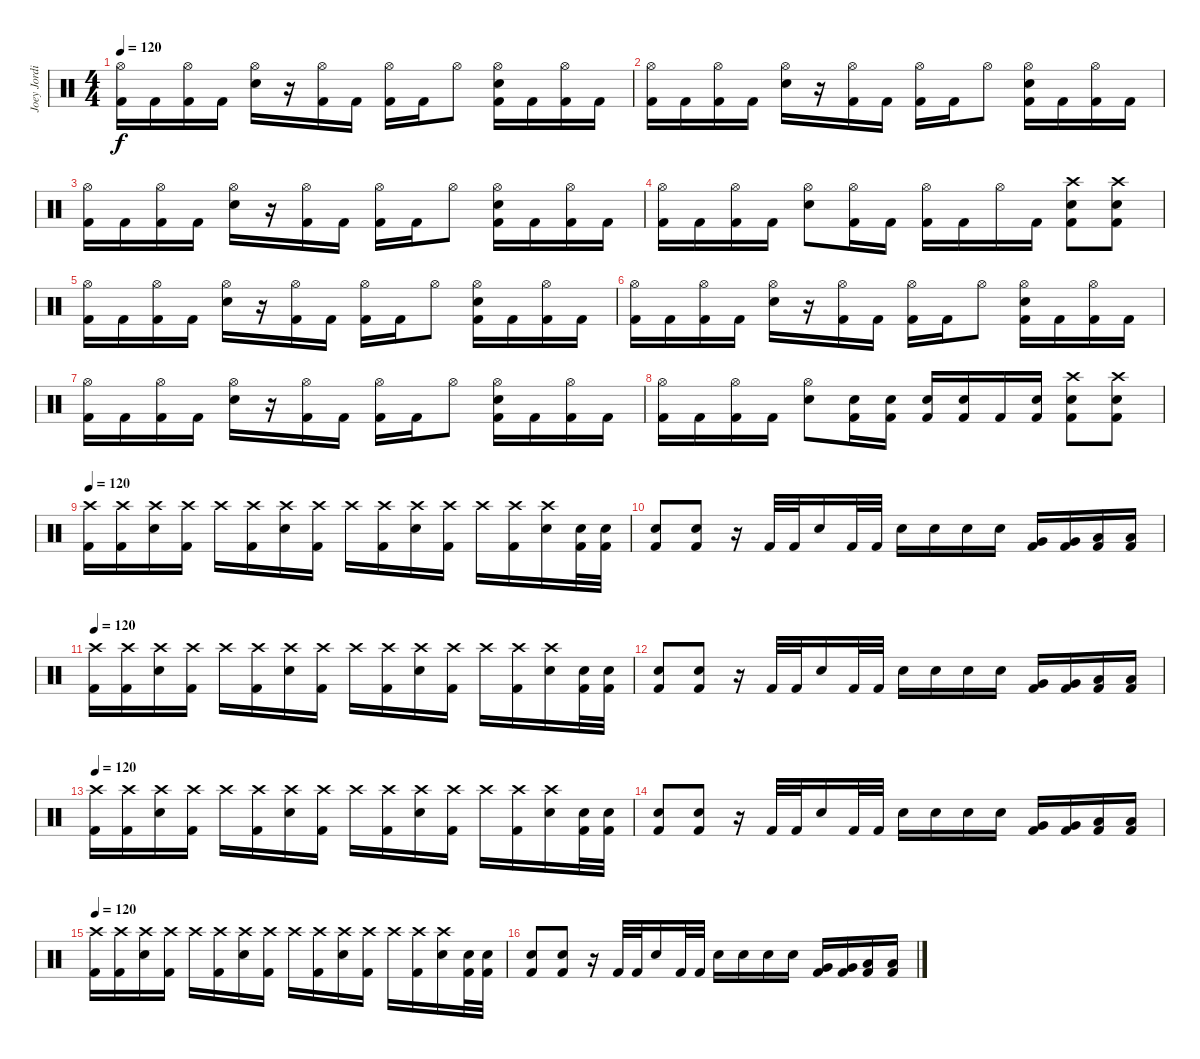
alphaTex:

\track ("Joey Jordison   #1" "Joey Jordi") {instrument percussion}
\staff {score}
\articulation defaults
\ts (4 4)
\tempo 120
\clef neutral
\ks c
("Hi-Hat (open)" "Kick (hit) 2").16{dy f} "Kick (hit) 2".16 ("Hi-Hat (open)" "Kick (hit) 2").16 "Kick (hit) 2".16 ("Hi-Hat (open)" "Electric Snare (hit)").16 r.16 ("Hi-Hat (open)" "Kick (hit) 2").16 "Kick (hit) 2".16 ("Hi-Hat (open)" "Kick (hit) 2").16 "Kick (hit) 2".16 "Hi-Hat (open)".8 ("Hi-Hat (open)" "Electric Snare (hit)" "Kick (hit) 2").16 "Kick (hit) 2".16 ("Hi-Hat (open)" "Kick (hit) 2").16 "Kick (hit) 2".16 |
("Hi-Hat (open)" "Kick (hit) 2").16 "Kick (hit) 2".16 ("Hi-Hat (open)" "Kick (hit) 2").16 "Kick (hit) 2".16 ("Hi-Hat (open)" "Electric Snare (hit)").16 r.16 ("Hi-Hat (open)" "Kick (hit) 2").16 "Kick (hit) 2".16 ("Hi-Hat (open)" "Kick (hit) 2").16 "Kick (hit) 2".16 "Hi-Hat (open)".8 ("Hi-Hat (open)" "Electric Snare (hit)" "Kick (hit) 2").16 "Kick (hit) 2".16 ("Hi-Hat (open)" "Kick (hit) 2").16 "Kick (hit) 2".16 |
("Hi-Hat (open)" "Kick (hit) 2").16 "Kick (hit) 2".16 ("Hi-Hat (open)" "Kick (hit) 2").16 "Kick (hit) 2".16 ("Hi-Hat (open)" "Electric Snare (hit)").16 r.16 ("Hi-Hat (open)" "Kick (hit) 2").16 "Kick (hit) 2".16 ("Hi-Hat (open)" "Kick (hit) 2").16 "Kick (hit) 2".16 "Hi-Hat (open)".8 ("Hi-Hat (open)" "Electric Snare (hit)" "Kick (hit) 2").16 "Kick (hit) 2".16 ("Hi-Hat (open)" "Kick (hit) 2").16 "Kick (hit) 2".16 |
("Hi-Hat (open)" "Kick (hit) 2").16 "Kick (hit) 2".16 ("Hi-Hat (open)" "Kick (hit) 2").16 "Kick (hit) 2".16 ("Hi-Hat (open)" "Electric Snare (hit)").8 ("Hi-Hat (open)" "Kick (hit) 2").16 "Kick (hit) 2".16 ("Hi-Hat (open)" "Kick (hit) 2").16 "Kick (hit) 2".16 "Hi-Hat (open)".16 "Kick (hit) 2".16 ("Electric Snare (hit)" "Crash high (hit)" "Kick (hit) 2").8 ("Electric Snare (hit)" "Crash high (hit)" "Kick (hit) 2").8 |
("Hi-Hat (open)" "Kick (hit) 2").16 "Kick (hit) 2".16 ("Hi-Hat (open)" "Kick (hit) 2").16 "Kick (hit) 2".16 ("Hi-Hat (open)" "Electric Snare (hit)").16 r.16 ("Hi-Hat (open)" "Kick (hit) 2").16 "Kick (hit) 2".16 ("Hi-Hat (open)" "Kick (hit) 2").16 "Kick (hit) 2".16 "Hi-Hat (open)".8 ("Hi-Hat (open)" "Electric Snare (hit)" "Kick (hit) 2").16 "Kick (hit) 2".16 ("Hi-Hat (open)" "Kick (hit) 2").16 "Kick (hit) 2".16 |
("Hi-Hat (open)" "Kick (hit) 2").16 "Kick (hit) 2".16 ("Hi-Hat (open)" "Kick (hit) 2").16 "Kick (hit) 2".16 ("Hi-Hat (open)" "Electric Snare (hit)").16 r.16 ("Hi-Hat (open)" "Kick (hit) 2").16 "Kick (hit) 2".16 ("Hi-Hat (open)" "Kick (hit) 2").16 "Kick (hit) 2".16 "Hi-Hat (open)".8 ("Hi-Hat (open)" "Electric Snare (hit)" "Kick (hit) 2").16 "Kick (hit) 2".16 ("Hi-Hat (open)" "Kick (hit) 2").16 "Kick (hit) 2".16 |
("Hi-Hat (open)" "Kick (hit) 2").16 "Kick (hit) 2".16 ("Hi-Hat (open)" "Kick (hit) 2").16 "Kick (hit) 2".16 ("Hi-Hat (open)" "Electric Snare (hit)").16 r.16 ("Hi-Hat (open)" "Kick (hit) 2").16 "Kick (hit) 2".16 ("Hi-Hat (open)" "Kick (hit) 2").16 "Kick (hit) 2".16 "Hi-Hat (open)".8 ("Hi-Hat (open)" "Electric Snare (hit)" "Kick (hit) 2").16 "Kick (hit) 2".16 ("Hi-Hat (open)" "Kick (hit) 2").16 "Kick (hit) 2".16 |
("Hi-Hat (open)" "Kick (hit) 2").16 "Kick (hit) 2".16 ("Hi-Hat (open)" "Kick (hit) 2").16 "Kick (hit) 2".16 ("Hi-Hat (open)" "Electric Snare (hit)").8 ("Electric Snare (hit)" "Kick (hit) 2").16 ("Electric Snare (hit)" "Kick (hit) 2").16 ("Electric Snare (hit)" "Kick (hit) 2").16 ("Electric Snare (hit)" "Kick (hit) 2").16 "Kick (hit) 2".16 ("Electric Snare (hit)" "Kick (hit) 2").16 ("Electric Snare (hit)" "Crash high (hit)" "Kick (hit) 2").8 ("Electric Snare (hit)" "Crash high (hit)" "Kick (hit) 2").8 |
\tempo 120
("Crash high (hit)" "Kick (hit) 2").16 ("Crash high (hit)" "Kick (hit) 2").16 ("Crash high (hit)" "Electric Snare (hit)").16 ("Crash high (hit)" "Kick (hit) 2").16 "Crash high (hit)".16 ("Crash high (hit)" "Kick (hit) 2").16 ("Crash high (hit)" "Electric Snare (hit)").16 ("Crash high (hit)" "Kick (hit) 2").16 "Crash high (hit)".16 ("Crash high (hit)" "Kick (hit) 2").16 ("Crash high (hit)" "Electric Snare (hit)").16 ("Crash high (hit)" "Kick (hit) 2").16 "Crash high (hit)".16 ("Crash high (hit)" "Kick (hit) 2").16 ("Crash high (hit)" "Electric Snare (hit)").16 ("Electric Snare (hit)" "Kick (hit) 2").32 ("Electric Snare (hit)" "Kick (hit) 2").32 |
("Electric Snare (hit)" "Kick (hit) 2").8 ("Electric Snare (hit)" "Kick (hit) 2").8 r.16 "Kick (hit) 2".32 "Kick (hit) 2".32 "Electric Snare (hit)".16 "Kick (hit) 2".32 "Kick (hit) 2".32 "Electric Snare (hit)".16 "Electric Snare (hit)".16 "Snare (hit) 2".16 "Snare (hit) 2".16 ("Very Low Tom (hit)" "Kick (hit) 2").16 ("Very Low Tom (hit)" "Kick (hit) 2").16 ("Low Floor Tom (hit)" "Kick (hit) 2").16 ("Low Floor Tom (hit)" "Kick (hit) 2").16 |
\tempo 120
("Crash high (hit)" "Kick (hit) 2").16 ("Crash high (hit)" "Kick (hit) 2").16 ("Crash high (hit)" "Electric Snare (hit)").16 ("Crash high (hit)" "Kick (hit) 2").16 "Crash high (hit)".16 ("Crash high (hit)" "Kick (hit) 2").16 ("Crash high (hit)" "Electric Snare (hit)").16 ("Crash high (hit)" "Kick (hit) 2").16 "Crash high (hit)".16 ("Crash high (hit)" "Kick (hit) 2").16 ("Crash high (hit)" "Electric Snare (hit)").16 ("Crash high (hit)" "Kick (hit) 2").16 "Crash high (hit)".16 ("Crash high (hit)" "Kick (hit) 2").16 ("Crash high (hit)" "Electric Snare (hit)").16 ("Electric Snare (hit)" "Kick (hit) 2").32 ("Electric Snare (hit)" "Kick (hit) 2").32 |
("Electric Snare (hit)" "Kick (hit) 2").8 ("Electric Snare (hit)" "Kick (hit) 2").8 r.16 "Kick (hit) 2".32 "Kick (hit) 2".32 "Electric Snare (hit)".16 "Kick (hit) 2".32 "Kick (hit) 2".32 "Electric Snare (hit)".16 "Electric Snare (hit)".16 "Snare (hit) 2".16 "Snare (hit) 2".16 ("Very Low Tom (hit)" "Kick (hit) 2").16 ("Very Low Tom (hit)" "Kick (hit) 2").16 ("Low Floor Tom (hit)" "Kick (hit) 2").16 ("Low Floor Tom (hit)" "Kick (hit) 2").16 |
\tempo 120
("Crash high (hit)" "Kick (hit) 2").16 ("Crash high (hit)" "Kick (hit) 2").16 ("Crash high (hit)" "Electric Snare (hit)").16 ("Crash high (hit)" "Kick (hit) 2").16 "Crash high (hit)".16 ("Crash high (hit)" "Kick (hit) 2").16 ("Crash high (hit)" "Electric Snare (hit)").16 ("Crash high (hit)" "Kick (hit) 2").16 "Crash high (hit)".16 ("Crash high (hit)" "Kick (hit) 2").16 ("Crash high (hit)" "Electric Snare (hit)").16 ("Crash high (hit)" "Kick (hit) 2").16 "Crash high (hit)".16 ("Crash high (hit)" "Kick (hit) 2").16 ("Crash high (hit)" "Electric Snare (hit)").16 ("Electric Snare (hit)" "Kick (hit) 2").32 ("Electric Snare (hit)" "Kick (hit) 2").32 |
("Electric Snare (hit)" "Kick (hit) 2").8 ("Electric Snare (hit)" "Kick (hit) 2").8 r.16 "Kick (hit) 2".32 "Kick (hit) 2".32 "Electric Snare (hit)".16 "Kick (hit) 2".32 "Kick (hit) 2".32 "Electric Snare (hit)".16 "Electric Snare (hit)".16 "Snare (hit) 2".16 "Snare (hit) 2".16 ("Very Low Tom (hit)" "Kick (hit) 2").16 ("Very Low Tom (hit)" "Kick (hit) 2").16 ("Low Floor Tom (hit)" "Kick (hit) 2").16 ("Low Floor Tom (hit)" "Kick (hit) 2").16 |
\tempo 120
("Crash high (hit)" "Kick (hit) 2").16 ("Crash high (hit)" "Kick (hit) 2").16 ("Crash high (hit)" "Electric Snare (hit)").16 ("Crash high (hit)" "Kick (hit) 2").16 "Crash high (hit)".16 ("Crash high (hit)" "Kick (hit) 2").16 ("Crash high (hit)" "Electric Snare (hit)").16 ("Crash high (hit)" "Kick (hit) 2").16 "Crash high (hit)".16 ("Crash high (hit)" "Kick (hit) 2").16 ("Crash high (hit)" "Electric Snare (hit)").16 ("Crash high (hit)" "Kick (hit) 2").16 "Crash high (hit)".16 ("Crash high (hit)" "Kick (hit) 2").16 ("Crash high (hit)" "Electric Snare (hit)").16 ("Electric Snare (hit)" "Kick (hit) 2").32 ("Electric Snare (hit)" "Kick (hit) 2").32 |
("Electric Snare (hit)" "Kick (hit) 2").8 ("Electric Snare (hit)" "Kick (hit) 2").8 r.16 "Kick (hit) 2".32 "Kick (hit) 2".32 "Electric Snare (hit)".16 "Kick (hit) 2".32 "Kick (hit) 2".32 "Electric Snare (hit)".16 "Electric Snare (hit)".16 "Snare (hit) 2".16 "Snare (hit) 2".16 ("Very Low Tom (hit)" "Kick (hit) 2").16 ("Very Low Tom (hit)" "Kick (hit) 2").16 ("Low Floor Tom (hit)" "Kick (hit) 2").16 ("Low Floor Tom (hit)" "Kick (hit) 2").16
